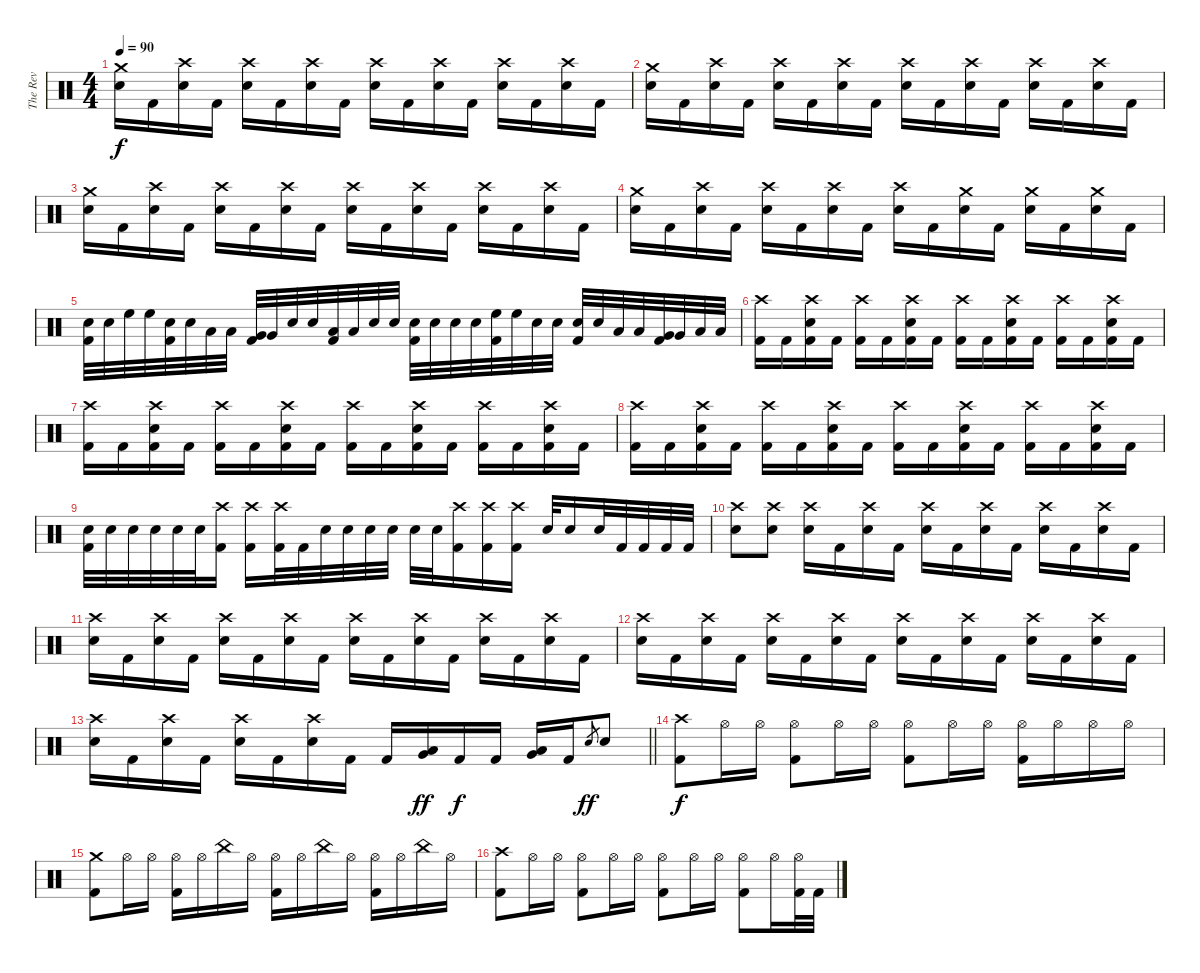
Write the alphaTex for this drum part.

\track ("The Rev" "The Rev") {instrument percussion}
\staff {score}
\articulation defaults
\ts (4 4)
\tempo 90
\clef neutral
\ks c
("Crash medium (hit)" "Electric Snare (hit)").16{dy f} "Kick (hit) 2".16 ("Crash high (hit)" "Electric Snare (hit)").16 "Kick (hit) 2".16 ("Crash high (hit)" "Electric Snare (hit)").16 "Kick (hit) 2".16 ("Crash high (hit)" "Electric Snare (hit)").16 "Kick (hit) 2".16 ("Crash high (hit)" "Electric Snare (hit)").16 "Kick (hit) 2".16 ("Crash high (hit)" "Electric Snare (hit)").16 "Kick (hit) 2".16 ("Crash high (hit)" "Electric Snare (hit)").16 "Kick (hit) 2".16 ("Crash high (hit)" "Electric Snare (hit)").16 "Kick (hit) 2".16 |
("Crash medium (hit)" "Electric Snare (hit)").16 "Kick (hit) 2".16 ("Crash high (hit)" "Electric Snare (hit)").16 "Kick (hit) 2".16 ("Crash high (hit)" "Electric Snare (hit)").16 "Kick (hit) 2".16 ("Crash high (hit)" "Electric Snare (hit)").16 "Kick (hit) 2".16 ("Crash high (hit)" "Electric Snare (hit)").16 "Kick (hit) 2".16 ("Crash high (hit)" "Electric Snare (hit)").16 "Kick (hit) 2".16 ("Crash high (hit)" "Electric Snare (hit)").16 "Kick (hit) 2".16 ("Crash high (hit)" "Electric Snare (hit)").16 "Kick (hit) 2".16 |
("Crash medium (hit)" "Electric Snare (hit)").16 "Kick (hit) 2".16 ("Crash high (hit)" "Electric Snare (hit)").16 "Kick (hit) 2".16 ("Crash high (hit)" "Electric Snare (hit)").16 "Kick (hit) 2".16 ("Crash high (hit)" "Electric Snare (hit)").16 "Kick (hit) 2".16 ("Crash high (hit)" "Electric Snare (hit)").16 "Kick (hit) 2".16 ("Crash high (hit)" "Electric Snare (hit)").16 "Kick (hit) 2".16 ("Crash high (hit)" "Electric Snare (hit)").16 "Kick (hit) 2".16 ("Crash high (hit)" "Electric Snare (hit)").16 "Kick (hit) 2".16 |
("Crash medium (hit)" "Electric Snare (hit)").16 "Kick (hit) 2".16 ("Crash high (hit)" "Electric Snare (hit)").16 "Kick (hit) 2".16 ("Crash high (hit)" "Electric Snare (hit)").16 "Kick (hit) 2".16 ("Crash high (hit)" "Electric Snare (hit)").16 "Kick (hit) 2".16 ("Crash high (hit)" "Electric Snare (hit)").16 "Kick (hit) 2".16 ("Crash medium (hit)" "Electric Snare (hit)").16 "Kick (hit) 2".16 ("Crash medium (hit)" "Electric Snare (hit)").16 "Kick (hit) 2".16 ("Crash medium (hit)" "Electric Snare (hit)").16 "Kick (hit) 2".16 |
("Electric Snare (hit)" "Kick (hit) 2").32 "Electric Snare (hit)".32 "High Floor Tom (hit)".32 "High Floor Tom (hit)".32 ("Electric Snare (hit)" "Kick (hit) 2").32 "Electric Snare (hit)".32 "Low Tom (hit)".32 "Low Tom (hit)".32 ("Very Low Tom (hit)" "Kick (hit) 2").32 "Very Low Tom (hit)".32 "Electric Snare (hit)".32 "Electric Snare (hit)".32 ("Low Floor Tom (hit)" "Kick (hit) 2").32 "Low Floor Tom (hit)".32 "Electric Snare (hit)".32 "Electric Snare (hit)".32 ("Electric Snare (hit)" "Kick (hit) 2").32 "Electric Snare (hit)".32 "Electric Snare (hit)".32 "Electric Snare (hit)".32 ("High Floor Tom (hit)" "Kick (hit) 2").32 "High Floor Tom (hit)".32 "Electric Snare (hit)".32 "Electric Snare (hit)".32 ("Electric Snare (hit)" "Kick (hit) 2").32 "Electric Snare (hit)".32 "Low Tom (hit)".32 "Low Tom (hit)".32 ("Very Low Tom (hit)" "Kick (hit) 2").32 "Very Low Tom (hit)".32 "Low Floor Tom (hit)".32 "Low Floor Tom (hit)".32 |
("Crash high (hit)" "Kick (hit) 2").16 "Kick (hit) 2".16 ("Crash high (hit)" "Electric Snare (hit)" "Kick (hit) 2").16 "Kick (hit) 2".16 ("Crash high (hit)" "Kick (hit) 2").16 "Kick (hit) 2".16 ("Crash high (hit)" "Electric Snare (hit)" "Kick (hit) 2").16 "Kick (hit) 2".16 ("Crash high (hit)" "Kick (hit) 2").16 "Kick (hit) 2".16 ("Crash high (hit)" "Electric Snare (hit)" "Kick (hit) 2").16 "Kick (hit) 2".16 ("Crash high (hit)" "Kick (hit) 2").16 "Kick (hit) 2".16 ("Crash high (hit)" "Electric Snare (hit)" "Kick (hit) 2").16 "Kick (hit) 2".16 |
("Crash high (hit)" "Kick (hit) 2").16 "Kick (hit) 2".16 ("Crash high (hit)" "Electric Snare (hit)" "Kick (hit) 2").16 "Kick (hit) 2".16 ("Crash high (hit)" "Kick (hit) 2").16 "Kick (hit) 2".16 ("Crash high (hit)" "Electric Snare (hit)" "Kick (hit) 2").16 "Kick (hit) 2".16 ("Crash high (hit)" "Kick (hit) 2").16 "Kick (hit) 2".16 ("Crash high (hit)" "Electric Snare (hit)" "Kick (hit) 2").16 "Kick (hit) 2".16 ("Crash high (hit)" "Kick (hit) 2").16 "Kick (hit) 2".16 ("Crash high (hit)" "Electric Snare (hit)" "Kick (hit) 2").16 "Kick (hit) 2".16 |
("Crash high (hit)" "Kick (hit) 2").16 "Kick (hit) 2".16 ("Crash high (hit)" "Electric Snare (hit)" "Kick (hit) 2").16 "Kick (hit) 2".16 ("Crash high (hit)" "Kick (hit) 2").16 "Kick (hit) 2".16 ("Crash high (hit)" "Electric Snare (hit)" "Kick (hit) 2").16 "Kick (hit) 2".16 ("Crash high (hit)" "Kick (hit) 2").16 "Kick (hit) 2".16 ("Crash high (hit)" "Electric Snare (hit)" "Kick (hit) 2").16 "Kick (hit) 2".16 ("Crash high (hit)" "Kick (hit) 2").16 "Kick (hit) 2".16 ("Crash high (hit)" "Electric Snare (hit)" "Kick (hit) 2").16 "Kick (hit) 2".16 |
("Electric Snare (hit)" "Kick (hit) 2").32 "Electric Snare (hit)".32 "Electric Snare (hit)".32 "Electric Snare (hit)".32 "Electric Snare (hit)".32 "Electric Snare (hit)".32 ("Crash high (hit)" "Kick (hit) 2").16 ("Crash high (hit)" "Kick (hit) 2").16 ("Crash high (hit)" "Kick (hit) 2").32 "Kick (hit) 2".32 "Electric Snare (hit)".32 "Electric Snare (hit)".32 "Electric Snare (hit)".32 "Electric Snare (hit)".32 "Electric Snare (hit)".32 "Electric Snare (hit)".32 ("Crash high (hit)" "Kick (hit) 2").16 ("Crash high (hit)" "Kick (hit) 2").16 ("Crash high (hit)" "Kick (hit) 2").16 "Electric Snare (hit)".32 "Electric Snare (hit)".16 "Electric Snare (hit)".32 "Kick (hit) 2".32 "Kick (hit) 2".32 "Kick (hit) 2".32 "Kick (hit) 2".32 |
("Crash high (hit)" "Electric Snare (hit)").8 ("Crash high (hit)" "Electric Snare (hit)").8 ("Crash high (hit)" "Electric Snare (hit)").16 "Kick (hit) 2".16 ("Crash high (hit)" "Electric Snare (hit)").16 "Kick (hit) 2".16 ("Crash high (hit)" "Electric Snare (hit)").16 "Kick (hit) 2".16 ("Crash high (hit)" "Electric Snare (hit)").16 "Kick (hit) 2".16 ("Crash high (hit)" "Electric Snare (hit)").16 "Kick (hit) 2".16 ("Crash high (hit)" "Electric Snare (hit)").16 "Kick (hit) 2".16 |
("Crash high (hit)" "Electric Snare (hit)").16 "Kick (hit) 2".16 ("Crash high (hit)" "Electric Snare (hit)").16 "Kick (hit) 2".16 ("Crash high (hit)" "Electric Snare (hit)").16 "Kick (hit) 2".16 ("Crash high (hit)" "Electric Snare (hit)").16 "Kick (hit) 2".16 ("Crash high (hit)" "Electric Snare (hit)").16 "Kick (hit) 2".16 ("Crash high (hit)" "Electric Snare (hit)").16 "Kick (hit) 2".16 ("Crash high (hit)" "Electric Snare (hit)").16 "Kick (hit) 2".16 ("Crash high (hit)" "Electric Snare (hit)").16 "Kick (hit) 2".16 |
("Crash high (hit)" "Electric Snare (hit)").16 "Kick (hit) 2".16 ("Crash high (hit)" "Electric Snare (hit)").16 "Kick (hit) 2".16 ("Crash high (hit)" "Electric Snare (hit)").16 "Kick (hit) 2".16 ("Crash high (hit)" "Electric Snare (hit)").16 "Kick (hit) 2".16 ("Crash high (hit)" "Electric Snare (hit)").16 "Kick (hit) 2".16 ("Crash high (hit)" "Electric Snare (hit)").16 "Kick (hit) 2".16 ("Crash high (hit)" "Electric Snare (hit)").16 "Kick (hit) 2".16 ("Crash high (hit)" "Electric Snare (hit)").16 "Kick (hit) 2".16 |
\barLineRight lightlight
("Crash high (hit)" "Electric Snare (hit)").16 "Kick (hit) 2".16 ("Crash high (hit)" "Electric Snare (hit)").16 "Kick (hit) 2".16 ("Crash high (hit)" "Electric Snare (hit)").16 "Kick (hit) 2".16 ("Crash high (hit)" "Electric Snare (hit)").16 "Kick (hit) 2".16 "Kick (hit) 2".16 ("Very Low Tom (hit)" "Low Tom (hit)").16{dy ff} "Kick (hit) 2".16{dy f} "Kick (hit) 2".16 ("Low Floor Tom (hit)" "Very Low Tom (hit)").16 "Kick (hit) 2".16 "Electric Snare (hit)".8{gr dy ff} "Electric Snare (hit)".8 |
("Crash high (hit)" "Kick (hit) 2").8{dy f} "Hi-Hat (open)".16 "Hi-Hat (open)".16 ("Hi-Hat (open)" "Kick (hit) 2").8 "Hi-Hat (open)".16 "Hi-Hat (open)".16 ("Hi-Hat (open)" "Kick (hit) 2").8 "Hi-Hat (open)".16 "Hi-Hat (open)".16 ("Hi-Hat (open)" "Kick (hit) 2").16 "Hi-Hat (open)".16 "Hi-Hat (open)".16 "Hi-Hat (open)".16 |
("Crash medium (hit)" "Kick (hit) 2").8 "Hi-Hat (open)".16 "Hi-Hat (open)".16 ("Hi-Hat (open)" "Kick (hit) 2").16 "Hi-Hat (open)".16 "China (hit)".16 "Hi-Hat (open)".16 ("Hi-Hat (open)" "Kick (hit) 2").16 "Hi-Hat (open)".16 "China (hit)".16 "Hi-Hat (open)".16 ("Hi-Hat (open)" "Kick (hit) 2").16 "Hi-Hat (open)".16 "China (hit)".16 "Hi-Hat (open)".16 |
("Crash high (hit)" "Kick (hit) 2").8 "Hi-Hat (open)".16 "Hi-Hat (open)".16 ("Hi-Hat (open)" "Kick (hit) 2").8 "Hi-Hat (open)".16 "Hi-Hat (open)".16 ("Hi-Hat (open)" "Kick (hit) 2").8 "Hi-Hat (open)".16 "Hi-Hat (open)".16 ("Hi-Hat (open)" "Kick (hit) 2").8 "Hi-Hat (open)".16 ("Hi-Hat (open)" "Kick (hit) 2").32 "Kick (hit) 2".32
